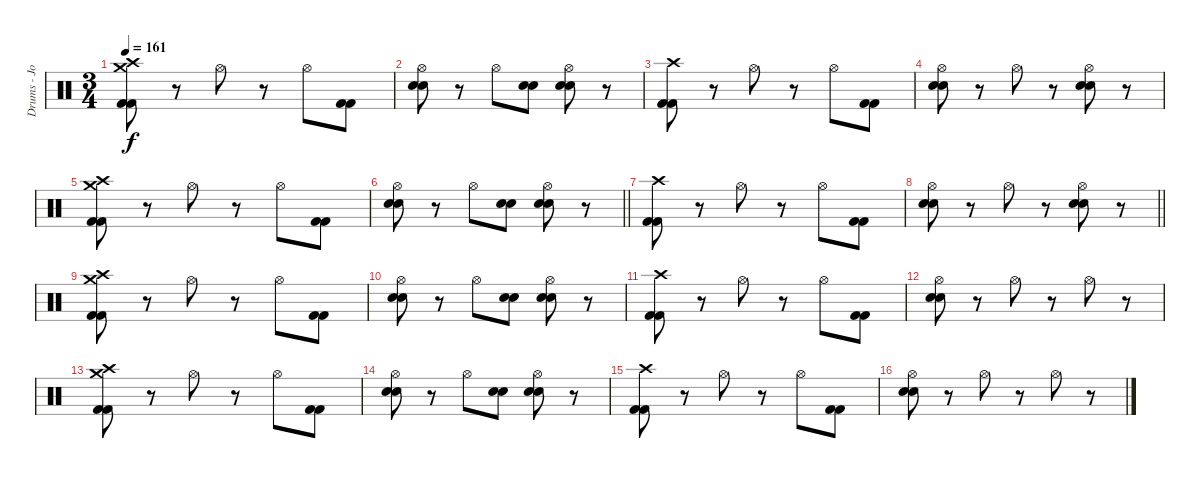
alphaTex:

\track ("Drums - Jon Wilkes" "Drums - Jo") {instrument percussion}
\staff {score}
\articulation defaults
\ts (3 4)
\tempo 161
\clef neutral
\ks c
("Crash medium (hit)" "Crash high (hit)" "Kick (hit) 2" "Kick (hit) 2").8{dy f} r.8 "Hi-Hat (open)".8 r.8 "Hi-Hat (open)".8 ("Kick (hit) 2" "Kick (hit) 2").8 |
("Hi-Hat (open)" "Electric Snare (hit)" "Electric Snare (hit)").8 r.8 "Hi-Hat (open)".8 ("Electric Snare (hit)" "Electric Snare (hit)").8 ("Hi-Hat (open)" "Electric Snare (hit)" "Electric Snare (hit)").8 r.8 |
("Crash high (hit)" "Kick (hit) 2" "Kick (hit) 2").8 r.8 "Hi-Hat (open)".8 r.8 "Hi-Hat (open)".8 ("Kick (hit) 2" "Kick (hit) 2").8 |
("Hi-Hat (open)" "Electric Snare (hit)" "Electric Snare (hit)").8 r.8 "Hi-Hat (open)".8 r.8 ("Hi-Hat (open)" "Electric Snare (hit)" "Electric Snare (hit)").8 r.8 |
("Crash medium (hit)" "Crash high (hit)" "Kick (hit) 2" "Kick (hit) 2").8 r.8 "Hi-Hat (open)".8 r.8 "Hi-Hat (open)".8 ("Kick (hit) 2" "Kick (hit) 2").8 |
\barLineRight lightlight
("Hi-Hat (open)" "Electric Snare (hit)" "Electric Snare (hit)").8 r.8 "Hi-Hat (open)".8 ("Electric Snare (hit)" "Electric Snare (hit)").8 ("Hi-Hat (open)" "Electric Snare (hit)" "Electric Snare (hit)").8 r.8 |
("Crash high (hit)" "Kick (hit) 2" "Kick (hit) 2").8 r.8 "Hi-Hat (open)".8 r.8 "Hi-Hat (open)".8 ("Kick (hit) 2" "Kick (hit) 2").8 |
\barLineRight lightlight
("Hi-Hat (open)" "Electric Snare (hit)" "Electric Snare (hit)").8 r.8 "Hi-Hat (open)".8 r.8 ("Hi-Hat (open)" "Electric Snare (hit)" "Electric Snare (hit)").8 r.8 |
("Crash medium (hit)" "Crash high (hit)" "Kick (hit) 2" "Kick (hit) 2").8 r.8 "Hi-Hat (open)".8 r.8 "Hi-Hat (open)".8 ("Kick (hit) 2" "Kick (hit) 2").8 |
("Hi-Hat (open)" "Electric Snare (hit)" "Electric Snare (hit)").8 r.8 "Hi-Hat (open)".8 ("Electric Snare (hit)" "Electric Snare (hit)").8 ("Hi-Hat (open)" "Electric Snare (hit)" "Electric Snare (hit)").8 r.8 |
("Crash high (hit)" "Kick (hit) 2" "Kick (hit) 2").8 r.8 "Hi-Hat (open)".8 r.8 "Hi-Hat (open)".8 ("Kick (hit) 2" "Kick (hit) 2").8 |
("Hi-Hat (open)" "Electric Snare (hit)" "Electric Snare (hit)").8 r.8 "Hi-Hat (open)".8 r.8 "Hi-Hat (open)".8 r.8 |
("Crash medium (hit)" "Crash high (hit)" "Kick (hit) 2" "Kick (hit) 2").8 r.8 "Hi-Hat (open)".8 r.8 "Hi-Hat (open)".8 ("Kick (hit) 2" "Kick (hit) 2").8 |
("Hi-Hat (open)" "Electric Snare (hit)" "Electric Snare (hit)").8 r.8 "Hi-Hat (open)".8 ("Electric Snare (hit)" "Electric Snare (hit)").8 ("Hi-Hat (open)" "Electric Snare (hit)" "Electric Snare (hit)").8 r.8 |
("Crash high (hit)" "Kick (hit) 2" "Kick (hit) 2").8 r.8 "Hi-Hat (open)".8 r.8 "Hi-Hat (open)".8 ("Kick (hit) 2" "Kick (hit) 2").8 |
("Hi-Hat (open)" "Electric Snare (hit)" "Electric Snare (hit)").8 r.8 "Hi-Hat (open)".8 r.8 "Hi-Hat (open)".8 r.8
